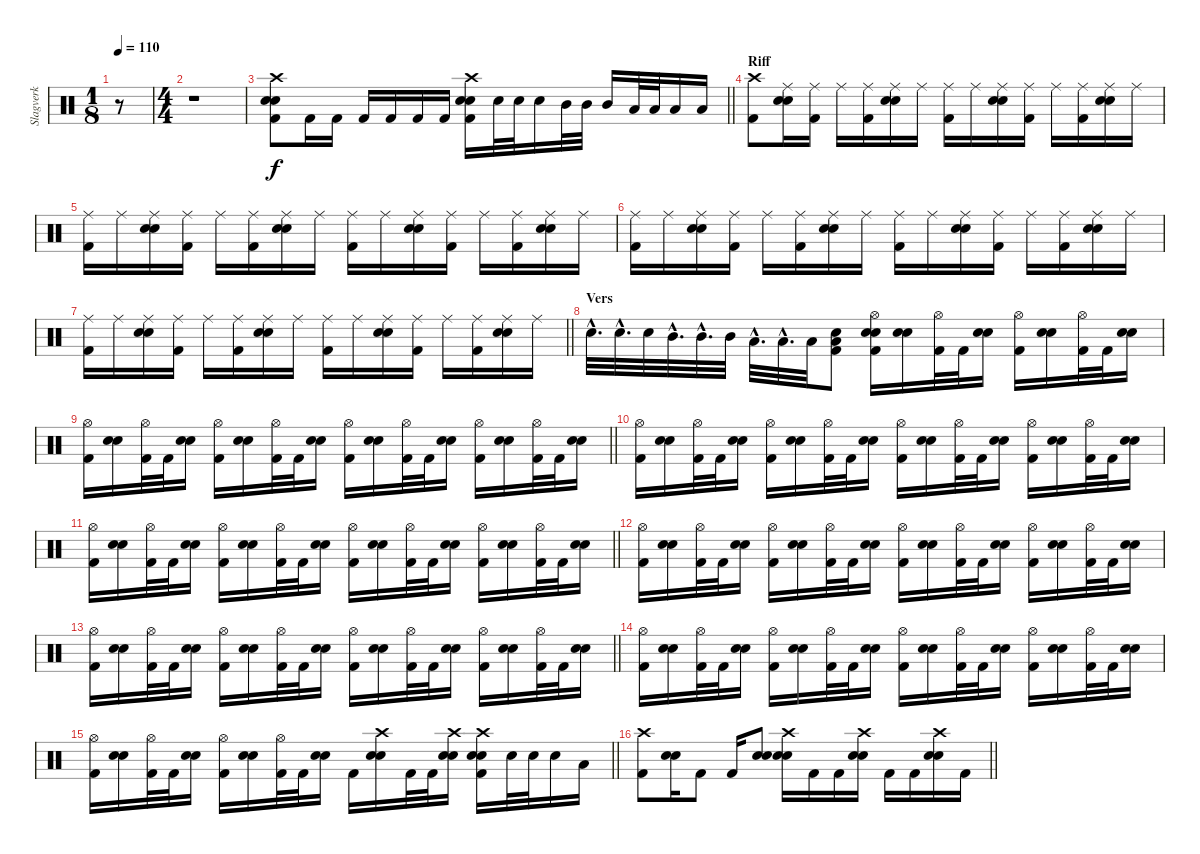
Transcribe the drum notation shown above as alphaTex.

\track ("Slagverk" "Slagverk") {instrument percussion}
\staff {score}
\articulation defaults
\ts (1 8)
\tempo 110
\clef neutral
\ks c
r.8{dy f} |
\ts (4 4)
r.1 |
\barLineRight lightlight
("Crash high (hit)" "Electric Snare (hit)" "Electric Snare (hit)" "Kick (hit) 2").8 "Kick (hit) 2".16 "Kick (hit) 2".16 "Kick (hit) 2".16 "Kick (hit) 2".16 "Kick (hit) 2".16 "Kick (hit) 2".16 ("Crash high (hit)" "Electric Snare (hit)" "Electric Snare (hit)" "Kick (hit) 2").16 "Electric Snare (hit)".32 "Electric Snare (hit)".32 "Electric Snare (hit)".16 "Mid Tom (hit)".32 "Mid Tom (hit)".32 "Mid Tom (hit)".16 "Low Floor Tom (hit)".32 "Low Floor Tom (hit)".32 "Low Floor Tom (hit)".16 "Low Floor Tom (hit)".16 |
\section ("" "Riff")
("Crash high (hit)" "Kick (hit) 2").8 ("Ride (middle)" "Electric Snare (hit)" "Electric Snare (hit)").16 ("Ride (middle)" "Kick (hit) 2").16 "Ride (middle)".16 ("Ride (middle)" "Kick (hit) 2").16 ("Ride (middle)" "Electric Snare (hit)" "Electric Snare (hit)").16 "Ride (middle)".16 ("Ride (middle)" "Kick (hit) 2").16 "Ride (middle)".16 ("Ride (middle)" "Electric Snare (hit)" "Electric Snare (hit)").16 ("Ride (middle)" "Kick (hit) 2").16 "Ride (middle)".16 ("Ride (middle)" "Kick (hit) 2").16 ("Ride (middle)" "Electric Snare (hit)" "Electric Snare (hit)").16 "Ride (middle)".16 |
("Ride (middle)" "Kick (hit) 2").16 "Ride (middle)".16 ("Ride (middle)" "Electric Snare (hit)" "Electric Snare (hit)").16 ("Ride (middle)" "Kick (hit) 2").16 "Ride (middle)".16 ("Ride (middle)" "Kick (hit) 2").16 ("Ride (middle)" "Electric Snare (hit)" "Electric Snare (hit)").16 "Ride (middle)".16 ("Ride (middle)" "Kick (hit) 2").16 "Ride (middle)".16 ("Ride (middle)" "Electric Snare (hit)" "Electric Snare (hit)").16 ("Ride (middle)" "Kick (hit) 2").16 "Ride (middle)".16 ("Ride (middle)" "Kick (hit) 2").16 ("Ride (middle)" "Electric Snare (hit)" "Electric Snare (hit)").16 "Ride (middle)".16 |
("Ride (middle)" "Kick (hit) 2").16 "Ride (middle)".16 ("Ride (middle)" "Electric Snare (hit)" "Electric Snare (hit)").16 ("Ride (middle)" "Kick (hit) 2").16 "Ride (middle)".16 ("Ride (middle)" "Kick (hit) 2").16 ("Ride (middle)" "Electric Snare (hit)" "Electric Snare (hit)").16 "Ride (middle)".16 ("Ride (middle)" "Kick (hit) 2").16 "Ride (middle)".16 ("Ride (middle)" "Electric Snare (hit)" "Electric Snare (hit)").16 ("Ride (middle)" "Kick (hit) 2").16 "Ride (middle)".16 ("Ride (middle)" "Kick (hit) 2").16 ("Ride (middle)" "Electric Snare (hit)" "Electric Snare (hit)").16 "Ride (middle)".16 |
\barLineRight lightlight
("Ride (middle)" "Kick (hit) 2").16 "Ride (middle)".16 ("Ride (middle)" "Electric Snare (hit)" "Electric Snare (hit)").16 ("Ride (middle)" "Kick (hit) 2").16 "Ride (middle)".16 ("Ride (middle)" "Kick (hit) 2").16 ("Ride (middle)" "Electric Snare (hit)" "Electric Snare (hit)").16 "Ride (middle)".16 ("Ride (middle)" "Kick (hit) 2").16 "Ride (middle)".16 ("Ride (middle)" "Electric Snare (hit)" "Electric Snare (hit)").16 ("Ride (middle)" "Kick (hit) 2").16 "Ride (middle)".16 ("Ride (middle)" "Kick (hit) 2").16 ("Ride (middle)" "Electric Snare (hit)" "Electric Snare (hit)").16 "Ride (middle)".16 |
\section ("" "Vers")
"Electric Snare (hit)"{hac}.32{d} "Electric Snare (hit)"{hac}.32{d} "Electric Snare (hit)".32 "Mid Tom (hit)"{hac}.32{d} "Mid Tom (hit)"{hac}.32{d} "Mid Tom (hit)".32 "Low Floor Tom (hit)"{hac}.32{d} "Low Floor Tom (hit)"{hac}.32{d} "Low Floor Tom (hit)".32 ("Low Floor Tom (hit)" "Electric Snare (hit)" "Kick (hit) 2").8 ("Hi-Hat (open)" "Electric Snare (hit)" "Electric Snare (hit)" "Kick (hit) 2").16 ("Electric Snare (hit)" "Electric Snare (hit)").16 ("Hi-Hat (open)" "Kick (hit) 2").32 "Kick (hit) 2".32 ("Electric Snare (hit)" "Electric Snare (hit)").16 ("Hi-Hat (open)" "Kick (hit) 2").16 ("Electric Snare (hit)" "Electric Snare (hit)").16 ("Hi-Hat (open)" "Kick (hit) 2").32 "Kick (hit) 2".32 ("Electric Snare (hit)" "Electric Snare (hit)").16 |
\barLineRight lightlight
("Hi-Hat (open)" "Kick (hit) 2").16 ("Electric Snare (hit)" "Electric Snare (hit)").16 ("Hi-Hat (open)" "Kick (hit) 2").32 "Kick (hit) 2".32 ("Electric Snare (hit)" "Electric Snare (hit)").16 ("Hi-Hat (open)" "Kick (hit) 2").16 ("Electric Snare (hit)" "Electric Snare (hit)").16 ("Hi-Hat (open)" "Kick (hit) 2").32 "Kick (hit) 2".32 ("Electric Snare (hit)" "Electric Snare (hit)").16 ("Hi-Hat (open)" "Kick (hit) 2").16 ("Electric Snare (hit)" "Electric Snare (hit)").16 ("Hi-Hat (open)" "Kick (hit) 2").32 "Kick (hit) 2".32 ("Electric Snare (hit)" "Electric Snare (hit)").16 ("Hi-Hat (open)" "Kick (hit) 2").16 ("Electric Snare (hit)" "Electric Snare (hit)").16 ("Hi-Hat (open)" "Kick (hit) 2").32 "Kick (hit) 2".32 ("Electric Snare (hit)" "Electric Snare (hit)").16 |
("Hi-Hat (open)" "Kick (hit) 2").16 ("Electric Snare (hit)" "Electric Snare (hit)").16 ("Hi-Hat (open)" "Kick (hit) 2").32 "Kick (hit) 2".32 ("Electric Snare (hit)" "Electric Snare (hit)").16 ("Hi-Hat (open)" "Kick (hit) 2").16 ("Electric Snare (hit)" "Electric Snare (hit)").16 ("Hi-Hat (open)" "Kick (hit) 2").32 "Kick (hit) 2".32 ("Electric Snare (hit)" "Electric Snare (hit)").16 ("Hi-Hat (open)" "Kick (hit) 2").16 ("Electric Snare (hit)" "Electric Snare (hit)").16 ("Hi-Hat (open)" "Kick (hit) 2").32 "Kick (hit) 2".32 ("Electric Snare (hit)" "Electric Snare (hit)").16 ("Hi-Hat (open)" "Kick (hit) 2").16 ("Electric Snare (hit)" "Electric Snare (hit)").16 ("Hi-Hat (open)" "Kick (hit) 2").32 "Kick (hit) 2".32 ("Electric Snare (hit)" "Electric Snare (hit)").16 |
\barLineRight lightlight
("Hi-Hat (open)" "Kick (hit) 2").16 ("Electric Snare (hit)" "Electric Snare (hit)").16 ("Hi-Hat (open)" "Kick (hit) 2").32 "Kick (hit) 2".32 ("Electric Snare (hit)" "Electric Snare (hit)").16 ("Hi-Hat (open)" "Kick (hit) 2").16 ("Electric Snare (hit)" "Electric Snare (hit)").16 ("Hi-Hat (open)" "Kick (hit) 2").32 "Kick (hit) 2".32 ("Electric Snare (hit)" "Electric Snare (hit)").16 ("Hi-Hat (open)" "Kick (hit) 2").16 ("Electric Snare (hit)" "Electric Snare (hit)").16 ("Hi-Hat (open)" "Kick (hit) 2").32 "Kick (hit) 2".32 ("Electric Snare (hit)" "Electric Snare (hit)").16 ("Hi-Hat (open)" "Kick (hit) 2").16 ("Electric Snare (hit)" "Electric Snare (hit)").16 ("Hi-Hat (open)" "Kick (hit) 2").32 "Kick (hit) 2".32 ("Electric Snare (hit)" "Electric Snare (hit)").16 |
("Hi-Hat (open)" "Kick (hit) 2").16 ("Electric Snare (hit)" "Electric Snare (hit)").16 ("Hi-Hat (open)" "Kick (hit) 2").32 "Kick (hit) 2".32 ("Electric Snare (hit)" "Electric Snare (hit)").16 ("Hi-Hat (open)" "Kick (hit) 2").16 ("Electric Snare (hit)" "Electric Snare (hit)").16 ("Hi-Hat (open)" "Kick (hit) 2").32 "Kick (hit) 2".32 ("Electric Snare (hit)" "Electric Snare (hit)").16 ("Hi-Hat (open)" "Kick (hit) 2").16 ("Electric Snare (hit)" "Electric Snare (hit)").16 ("Hi-Hat (open)" "Kick (hit) 2").32 "Kick (hit) 2".32 ("Electric Snare (hit)" "Electric Snare (hit)").16 ("Hi-Hat (open)" "Kick (hit) 2").16 ("Electric Snare (hit)" "Electric Snare (hit)").16 ("Hi-Hat (open)" "Kick (hit) 2").32 "Kick (hit) 2".32 ("Electric Snare (hit)" "Electric Snare (hit)").16 |
\barLineRight lightlight
("Hi-Hat (open)" "Kick (hit) 2").16 ("Electric Snare (hit)" "Electric Snare (hit)").16 ("Hi-Hat (open)" "Kick (hit) 2").32 "Kick (hit) 2".32 ("Electric Snare (hit)" "Electric Snare (hit)").16 ("Hi-Hat (open)" "Kick (hit) 2").16 ("Electric Snare (hit)" "Electric Snare (hit)").16 ("Hi-Hat (open)" "Kick (hit) 2").32 "Kick (hit) 2".32 ("Electric Snare (hit)" "Electric Snare (hit)").16 ("Hi-Hat (open)" "Kick (hit) 2").16 ("Electric Snare (hit)" "Electric Snare (hit)").16 ("Hi-Hat (open)" "Kick (hit) 2").32 "Kick (hit) 2".32 ("Electric Snare (hit)" "Electric Snare (hit)").16 ("Hi-Hat (open)" "Kick (hit) 2").16 ("Electric Snare (hit)" "Electric Snare (hit)").16 ("Hi-Hat (open)" "Kick (hit) 2").32 "Kick (hit) 2".32 ("Electric Snare (hit)" "Electric Snare (hit)").16 |
("Hi-Hat (open)" "Kick (hit) 2").16 ("Electric Snare (hit)" "Electric Snare (hit)").16 ("Hi-Hat (open)" "Kick (hit) 2").32 "Kick (hit) 2".32 ("Electric Snare (hit)" "Electric Snare (hit)").16 ("Hi-Hat (open)" "Kick (hit) 2").16 ("Electric Snare (hit)" "Electric Snare (hit)").16 ("Hi-Hat (open)" "Kick (hit) 2").32 "Kick (hit) 2".32 ("Electric Snare (hit)" "Electric Snare (hit)").16 ("Hi-Hat (open)" "Kick (hit) 2").16 ("Electric Snare (hit)" "Electric Snare (hit)").16 ("Hi-Hat (open)" "Kick (hit) 2").32 "Kick (hit) 2".32 ("Electric Snare (hit)" "Electric Snare (hit)").16 ("Hi-Hat (open)" "Kick (hit) 2").16 ("Electric Snare (hit)" "Electric Snare (hit)").16 ("Hi-Hat (open)" "Kick (hit) 2").32 "Kick (hit) 2".32 ("Electric Snare (hit)" "Electric Snare (hit)").16 |
\barLineRight lightlight
("Hi-Hat (open)" "Kick (hit) 2").16 ("Electric Snare (hit)" "Electric Snare (hit)").16 ("Hi-Hat (open)" "Kick (hit) 2").32 "Kick (hit) 2".32 ("Electric Snare (hit)" "Electric Snare (hit)").16 ("Hi-Hat (open)" "Kick (hit) 2").16 ("Electric Snare (hit)" "Electric Snare (hit)").16 ("Hi-Hat (open)" "Kick (hit) 2").32 "Kick (hit) 2".32 ("Electric Snare (hit)" "Electric Snare (hit)").16 "Kick (hit) 2".16 ("Crash high (hit)" "Electric Snare (hit)" "Electric Snare (hit)").16 "Kick (hit) 2".32 "Kick (hit) 2".32 ("Crash high (hit)" "Electric Snare (hit)" "Electric Snare (hit)").16 ("Crash high (hit)" "Electric Snare (hit)" "Electric Snare (hit)" "Kick (hit) 2").16 "Electric Snare (hit)".32 "Electric Snare (hit)".32 "Electric Snare (hit)".16 "Low Floor Tom (hit)".16 |
\barLineRight lightlight
("Crash high (hit)" "Kick (hit) 2").8 ("Electric Snare (hit)" "Electric Snare (hit)").16 "Kick (hit) 2".8 "Kick (hit) 2".16 ("Electric Snare (hit)" "Electric Snare (hit)").8 ("Crash high (hit)" "Electric Snare (hit)" "Electric Snare (hit)").16 "Kick (hit) 2".16 "Kick (hit) 2".16 ("Crash high (hit)" "Electric Snare (hit)" "Electric Snare (hit)").16 "Kick (hit) 2".16 "Kick (hit) 2".16 ("Crash high (hit)" "Electric Snare (hit)" "Electric Snare (hit)").16 "Kick (hit) 2".16
